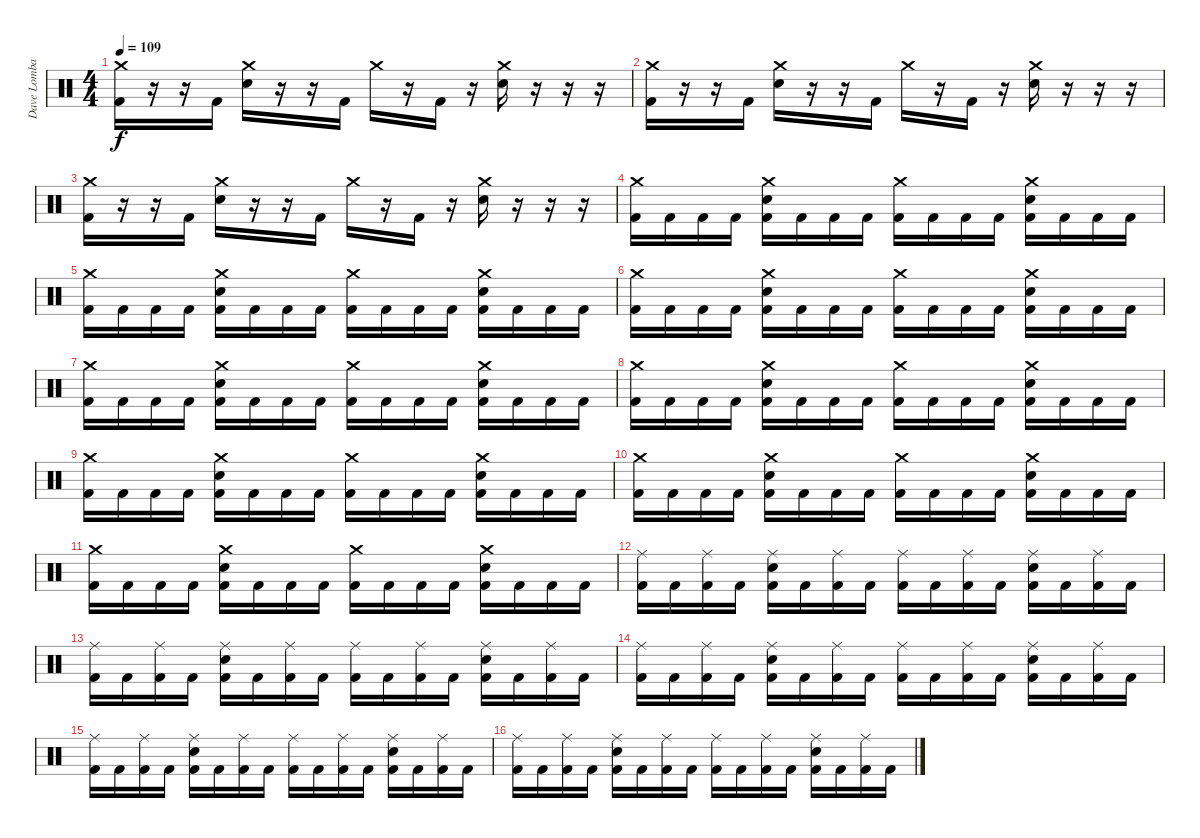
\track ("Dave Lombardo" "Dave Lomba") {instrument percussion}
\staff {score}
\articulation defaults
\ts (4 4)
\tempo 109
\clef neutral
\ks c
("Crash medium (hit)" "Kick (hit) 2").16{dy f} r.16 r.16 "Kick (hit) 2".16 ("Crash medium (hit)" "Electric Snare (hit)").16 r.16 r.16 "Kick (hit) 2".16 "Crash medium (hit)".16 r.16 "Kick (hit) 2".16 r.16 ("Crash medium (hit)" "Electric Snare (hit)").16 r.16 r.16 r.16 |
("Crash medium (hit)" "Kick (hit) 2").16 r.16 r.16 "Kick (hit) 2".16 ("Crash medium (hit)" "Electric Snare (hit)").16 r.16 r.16 "Kick (hit) 2".16 "Crash medium (hit)".16 r.16 "Kick (hit) 2".16 r.16 ("Crash medium (hit)" "Electric Snare (hit)").16 r.16 r.16 r.16 |
("Crash medium (hit)" "Kick (hit) 2").16 r.16 r.16 "Kick (hit) 2".16 ("Crash medium (hit)" "Electric Snare (hit)").16 r.16 r.16 "Kick (hit) 2".16 "Crash medium (hit)".16 r.16 "Kick (hit) 2".16 r.16 ("Crash medium (hit)" "Electric Snare (hit)").16 r.16 r.16 r.16 |
("Crash medium (hit)" "Kick (hit) 2").16 "Kick (hit) 2".16 "Kick (hit) 2".16 "Kick (hit) 2".16 ("Crash medium (hit)" "Electric Snare (hit)" "Kick (hit) 2").16 "Kick (hit) 2".16 "Kick (hit) 2".16 "Kick (hit) 2".16 ("Crash medium (hit)" "Kick (hit) 2").16 "Kick (hit) 2".16 "Kick (hit) 2".16 "Kick (hit) 2".16 ("Crash medium (hit)" "Electric Snare (hit)" "Kick (hit) 2").16 "Kick (hit) 2".16 "Kick (hit) 2".16 "Kick (hit) 2".16 |
("Crash medium (hit)" "Kick (hit) 2").16 "Kick (hit) 2".16 "Kick (hit) 2".16 "Kick (hit) 2".16 ("Crash medium (hit)" "Electric Snare (hit)" "Kick (hit) 2").16 "Kick (hit) 2".16 "Kick (hit) 2".16 "Kick (hit) 2".16 ("Crash medium (hit)" "Kick (hit) 2").16 "Kick (hit) 2".16 "Kick (hit) 2".16 "Kick (hit) 2".16 ("Crash medium (hit)" "Electric Snare (hit)" "Kick (hit) 2").16 "Kick (hit) 2".16 "Kick (hit) 2".16 "Kick (hit) 2".16 |
("Crash medium (hit)" "Kick (hit) 2").16 "Kick (hit) 2".16 "Kick (hit) 2".16 "Kick (hit) 2".16 ("Crash medium (hit)" "Electric Snare (hit)" "Kick (hit) 2").16 "Kick (hit) 2".16 "Kick (hit) 2".16 "Kick (hit) 2".16 ("Crash medium (hit)" "Kick (hit) 2").16 "Kick (hit) 2".16 "Kick (hit) 2".16 "Kick (hit) 2".16 ("Crash medium (hit)" "Electric Snare (hit)" "Kick (hit) 2").16 "Kick (hit) 2".16 "Kick (hit) 2".16 "Kick (hit) 2".16 |
("Crash medium (hit)" "Kick (hit) 2").16 "Kick (hit) 2".16 "Kick (hit) 2".16 "Kick (hit) 2".16 ("Crash medium (hit)" "Electric Snare (hit)" "Kick (hit) 2").16 "Kick (hit) 2".16 "Kick (hit) 2".16 "Kick (hit) 2".16 ("Crash medium (hit)" "Kick (hit) 2").16 "Kick (hit) 2".16 "Kick (hit) 2".16 "Kick (hit) 2".16 ("Crash medium (hit)" "Electric Snare (hit)" "Kick (hit) 2").16 "Kick (hit) 2".16 "Kick (hit) 2".16 "Kick (hit) 2".16 |
("Crash medium (hit)" "Kick (hit) 2").16 "Kick (hit) 2".16 "Kick (hit) 2".16 "Kick (hit) 2".16 ("Crash medium (hit)" "Electric Snare (hit)" "Kick (hit) 2").16 "Kick (hit) 2".16 "Kick (hit) 2".16 "Kick (hit) 2".16 ("Crash medium (hit)" "Kick (hit) 2").16 "Kick (hit) 2".16 "Kick (hit) 2".16 "Kick (hit) 2".16 ("Crash medium (hit)" "Electric Snare (hit)" "Kick (hit) 2").16 "Kick (hit) 2".16 "Kick (hit) 2".16 "Kick (hit) 2".16 |
("Crash medium (hit)" "Kick (hit) 2").16 "Kick (hit) 2".16 "Kick (hit) 2".16 "Kick (hit) 2".16 ("Crash medium (hit)" "Electric Snare (hit)" "Kick (hit) 2").16 "Kick (hit) 2".16 "Kick (hit) 2".16 "Kick (hit) 2".16 ("Crash medium (hit)" "Kick (hit) 2").16 "Kick (hit) 2".16 "Kick (hit) 2".16 "Kick (hit) 2".16 ("Crash medium (hit)" "Electric Snare (hit)" "Kick (hit) 2").16 "Kick (hit) 2".16 "Kick (hit) 2".16 "Kick (hit) 2".16 |
("Crash medium (hit)" "Kick (hit) 2").16 "Kick (hit) 2".16 "Kick (hit) 2".16 "Kick (hit) 2".16 ("Crash medium (hit)" "Electric Snare (hit)" "Kick (hit) 2").16 "Kick (hit) 2".16 "Kick (hit) 2".16 "Kick (hit) 2".16 ("Crash medium (hit)" "Kick (hit) 2").16 "Kick (hit) 2".16 "Kick (hit) 2".16 "Kick (hit) 2".16 ("Crash medium (hit)" "Electric Snare (hit)" "Kick (hit) 2").16 "Kick (hit) 2".16 "Kick (hit) 2".16 "Kick (hit) 2".16 |
("Crash medium (hit)" "Kick (hit) 2").16 "Kick (hit) 2".16 "Kick (hit) 2".16 "Kick (hit) 2".16 ("Crash medium (hit)" "Electric Snare (hit)" "Kick (hit) 2").16 "Kick (hit) 2".16 "Kick (hit) 2".16 "Kick (hit) 2".16 ("Crash medium (hit)" "Kick (hit) 2").16 "Kick (hit) 2".16 "Kick (hit) 2".16 "Kick (hit) 2".16 ("Crash medium (hit)" "Electric Snare (hit)" "Kick (hit) 2").16 "Kick (hit) 2".16 "Kick (hit) 2".16 "Kick (hit) 2".16 |
("Ride (middle)" "Kick (hit) 2").16 "Kick (hit) 2".16 ("Ride (middle)" "Kick (hit) 2").16 "Kick (hit) 2".16 ("Ride (middle)" "Electric Snare (hit)" "Kick (hit) 2").16 "Kick (hit) 2".16 ("Ride (middle)" "Kick (hit) 2").16 "Kick (hit) 2".16 ("Ride (middle)" "Kick (hit) 2").16 "Kick (hit) 2".16 ("Ride (middle)" "Kick (hit) 2").16 "Kick (hit) 2".16 ("Ride (middle)" "Electric Snare (hit)" "Kick (hit) 2").16 "Kick (hit) 2".16 ("Ride (middle)" "Kick (hit) 2").16 "Kick (hit) 2".16 |
("Ride (middle)" "Kick (hit) 2").16 "Kick (hit) 2".16 ("Ride (middle)" "Kick (hit) 2").16 "Kick (hit) 2".16 ("Ride (middle)" "Electric Snare (hit)" "Kick (hit) 2").16 "Kick (hit) 2".16 ("Ride (middle)" "Kick (hit) 2").16 "Kick (hit) 2".16 ("Ride (middle)" "Kick (hit) 2").16 "Kick (hit) 2".16 ("Ride (middle)" "Kick (hit) 2").16 "Kick (hit) 2".16 ("Ride (middle)" "Electric Snare (hit)" "Kick (hit) 2").16 "Kick (hit) 2".16 ("Ride (middle)" "Kick (hit) 2").16 "Kick (hit) 2".16 |
("Ride (middle)" "Kick (hit) 2").16 "Kick (hit) 2".16 ("Ride (middle)" "Kick (hit) 2").16 "Kick (hit) 2".16 ("Ride (middle)" "Electric Snare (hit)" "Kick (hit) 2").16 "Kick (hit) 2".16 ("Ride (middle)" "Kick (hit) 2").16 "Kick (hit) 2".16 ("Ride (middle)" "Kick (hit) 2").16 "Kick (hit) 2".16 ("Ride (middle)" "Kick (hit) 2").16 "Kick (hit) 2".16 ("Ride (middle)" "Electric Snare (hit)" "Kick (hit) 2").16 "Kick (hit) 2".16 ("Ride (middle)" "Kick (hit) 2").16 "Kick (hit) 2".16 |
("Ride (middle)" "Kick (hit) 2").16 "Kick (hit) 2".16 ("Ride (middle)" "Kick (hit) 2").16 "Kick (hit) 2".16 ("Ride (middle)" "Electric Snare (hit)" "Kick (hit) 2").16 "Kick (hit) 2".16 ("Ride (middle)" "Kick (hit) 2").16 "Kick (hit) 2".16 ("Ride (middle)" "Kick (hit) 2").16 "Kick (hit) 2".16 ("Ride (middle)" "Kick (hit) 2").16 "Kick (hit) 2".16 ("Ride (middle)" "Electric Snare (hit)" "Kick (hit) 2").16 "Kick (hit) 2".16 ("Ride (middle)" "Kick (hit) 2").16 "Kick (hit) 2".16 |
("Ride (middle)" "Kick (hit) 2").16 "Kick (hit) 2".16 ("Ride (middle)" "Kick (hit) 2").16 "Kick (hit) 2".16 ("Ride (middle)" "Electric Snare (hit)" "Kick (hit) 2").16 "Kick (hit) 2".16 ("Ride (middle)" "Kick (hit) 2").16 "Kick (hit) 2".16 ("Ride (middle)" "Kick (hit) 2").16 "Kick (hit) 2".16 ("Ride (middle)" "Kick (hit) 2").16 "Kick (hit) 2".16 ("Ride (middle)" "Electric Snare (hit)" "Kick (hit) 2").16 "Kick (hit) 2".16 ("Ride (middle)" "Kick (hit) 2").16 "Kick (hit) 2".16
